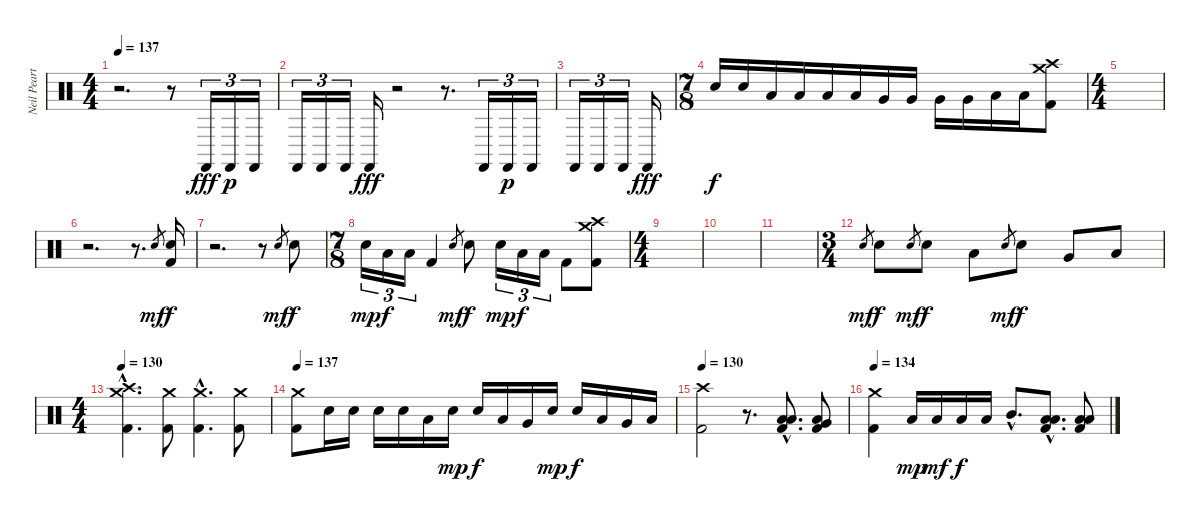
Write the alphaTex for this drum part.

\track ("Neil Peart, Percusión" "Neil Peart") {instrument percussion}
\staff {score}
\articulation defaults
\ts (4 4)
\tempo 137
\clef neutral
\ks c
r.2{d dy f} r.8 "Castanets (hit)".16{tu (3 2) dy fff} "Castanets (hit)".16{tu (3 2) dy p} "Castanets (hit)".16{tu (3 2)} |
"Castanets (hit)".16{tu (3 2)} "Castanets (hit)".16{tu (3 2)} "Castanets (hit)".16{tu (3 2)} "Castanets (hit)".16{dy fff} r.2 r.8{d} "Castanets (hit)".16{tu (3 2)} "Castanets (hit)".16{tu (3 2) dy p} "Castanets (hit)".16{tu (3 2)} |
"Castanets (hit)".16{tu (3 2)} "Castanets (hit)".16{tu (3 2)} "Castanets (hit)".16{tu (3 2)} "Castanets (hit)".16{dy fff} |
\ts (7 8)
"Electric Snare (hit)".16{dy f} "Electric Snare (hit)".16 "Low Tom (hit)".16 "Low Tom (hit)".16 "Low Tom (hit)".16 "Low Tom (hit)".16 "Very Low Tom (hit)".16 "Very Low Tom (hit)".16 "Very Low Tom (hit)".16 "Very Low Tom (hit)".16 "Low Floor Tom (hit)".16 "Low Floor Tom (hit)".16 ("Crash medium (hit)" "Crash high (hit)" "Kick (hit) 2").8 |
\ts (4 4)
|
r.2{d} r.8{d} "Electric Snare (hit)".8{gr dy mf} ("Electric Snare (hit)" "Kick (hit) 2").16{dy f} |
r.2{d} r.8 "Electric Snare (hit)".8{gr dy mf} "Electric Snare (hit)".8{dy f} |
\ts (7 8)
"Electric Snare (hit)".16{tu (3 2) dy mp} "Low Tom (hit)".16{tu (3 2) dy f} "Low Floor Tom (hit)".16{tu (3 2)} "Kick (hit) 2".4 "Electric Snare (hit)".8{gr dy mf} "Electric Snare (hit)".8{dy f} "Electric Snare (hit)".16{tu (3 2) dy mp} "Low Tom (hit)".16{tu (3 2) dy f} "Low Floor Tom (hit)".16{tu (3 2)} "Kick (hit) 2".8 ("Crash medium (hit)" "Crash high (hit)" "Kick (hit) 2").8 |
\ts (4 4)
|
|
|
\ts (3 4)
"Electric Snare (hit)".8{gr dy mf} "Electric Snare (hit)".8{dy f} "Electric Snare (hit)".8{gr dy mf} "Electric Snare (hit)".8{dy f} "Low Tom (hit)".8 "Electric Snare (hit)".8{gr dy mf} "Electric Snare (hit)".8{dy f} "Very Low Tom (hit)".8 "Low Floor Tom (hit)".8 |
\ts (4 4)
\tempo 130
("Crash medium (hit)"{hac} "Crash high (hit)"{hac} "Kick (hit) 2"{hac}).4{d} ("Crash medium (hit)" "Kick (hit) 2").8 ("Crash medium (hit)"{hac} "Kick (hit) 2"{hac}).4{d} ("Crash medium (hit)" "Kick (hit) 2").8 |
\tempo 137
("Crash medium (hit)" "Kick (hit) 2").8 "Electric Snare (hit)".16 "Electric Snare (hit)".16 "Electric Snare (hit)".16 "Electric Snare (hit)".16 "Low Tom (hit)".16 "Electric Snare (hit)".16{dy mp} "Electric Snare (hit)".16{dy f} "Low Tom (hit)".16 "Very Low Tom (hit)".16 "Electric Snare (hit)".16{dy mp} "Electric Snare (hit)".16{dy f} "Low Tom (hit)".16 "Very Low Tom (hit)".16 "Low Floor Tom (hit)".16 |
\tempo 130
("Crash high (hit)" "Kick (hit) 2").2 r.8{d} ("Low Tom (hit)"{hac} "Low Floor Tom (hit)"{hac} "Kick (hit) 2"{hac}).8{d} ("Very Low Tom (hit)" "Low Floor Tom (hit)" "Kick (hit) 2").8 |
\tempo 134
("Crash medium (hit)" "Kick (hit) 2").4 "Low Tom (hit)".16{dy mp} "Low Tom (hit)".16{dy mf} "Low Tom (hit)".16{dy f} "Low Tom (hit)".16 "Mid Tom (hit)"{hac}.8{d} ("Low Tom (hit)"{hac} "Low Floor Tom (hit)"{hac} "Kick (hit) 2"{hac}).8{d} ("Low Tom (hit)" "Low Floor Tom (hit)" "Kick (hit) 2").8
